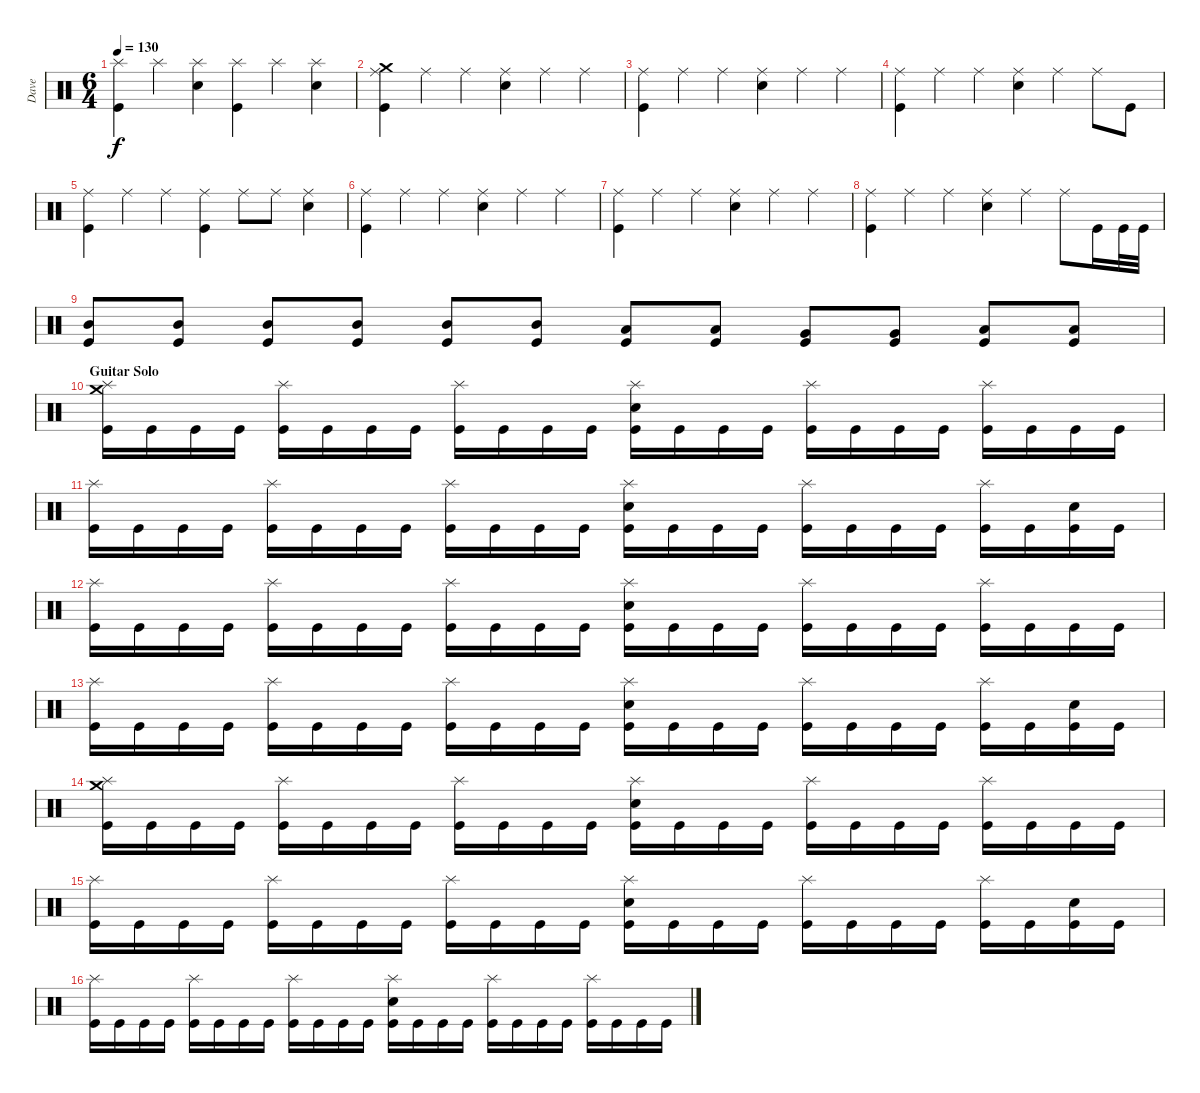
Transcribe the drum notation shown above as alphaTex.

\track ("Dave" "Dave") {instrument percussion}
\staff {score}
\articulation defaults
\ts (6 4)
\tempo 130
\clef neutral
\ks c
("Splash (hit)" "Kick (hit)").4{dy f} "Splash (hit)".4 ("Splash (hit)" "Electric Snare (hit)").4 ("Splash (hit)" "Kick (hit)").4 "Splash (hit)".4 ("Splash (hit)" "Electric Snare (hit)").4 |
("Crash medium (hit)" "Ride (middle)" "Kick (hit)").4 "Ride (middle)".4 "Ride (middle)".4 ("Ride (middle)" "Electric Snare (hit)").4 "Ride (middle)".4 "Ride (middle)".4 |
("Ride (middle)" "Kick (hit)").4 "Ride (middle)".4 "Ride (middle)".4 ("Ride (middle)" "Electric Snare (hit)").4 "Ride (middle)".4 "Ride (middle)".4 |
("Ride (middle)" "Kick (hit)").4 "Ride (middle)".4 "Ride (middle)".4 ("Ride (middle)" "Electric Snare (hit)").4 "Ride (middle)".4 "Ride (middle)".8 "Kick (hit)".8 |
("Ride (middle)" "Kick (hit)").4 "Ride (middle)".4 "Ride (middle)".4 ("Ride (middle)" "Kick (hit)").4 "Ride (middle)".8 "Ride (middle)".8 ("Ride (middle)" "Electric Snare (hit)").4 |
("Ride (middle)" "Kick (hit)").4 "Ride (middle)".4 "Ride (middle)".4 ("Ride (middle)" "Electric Snare (hit)").4 "Ride (middle)".4 "Ride (middle)".4 |
("Ride (middle)" "Kick (hit)").4 "Ride (middle)".4 "Ride (middle)".4 ("Ride (middle)" "Electric Snare (hit)").4 "Ride (middle)".4 "Ride (middle)".4 |
("Ride (middle)" "Kick (hit)").4 "Ride (middle)".4 "Ride (middle)".4 ("Ride (middle)" "Electric Snare (hit)").4 "Ride (middle)".4 "Ride (middle)".8 "Kick (hit)".16 "Kick (hit)".32 "Kick (hit)".32 |
("Mid Tom (hit)" "Kick (hit)").8 ("Mid Tom (hit)" "Kick (hit)").8 ("Mid Tom (hit)" "Kick (hit)").8 ("Mid Tom (hit)" "Kick (hit)").8 ("Mid Tom (hit)" "Kick (hit)").8 ("Mid Tom (hit)" "Kick (hit)").8 ("Low Tom (hit)" "Kick (hit)").8 ("Low Tom (hit)" "Kick (hit)").8 ("Very Low Tom (hit)" "Kick (hit)").8 ("Very Low Tom (hit)" "Kick (hit)").8 ("Low Floor Tom (hit)" "Kick (hit)").8 ("Low Floor Tom (hit)" "Kick (hit)").8 |
\section ("" "Guitar Solo")
("Crash medium (hit)" "Splash (hit)" "Kick (hit)").16 "Kick (hit)".16 "Kick (hit)".16 "Kick (hit)".16 ("Splash (hit)" "Kick (hit)").16 "Kick (hit)".16 "Kick (hit)".16 "Kick (hit)".16 ("Splash (hit)" "Kick (hit)").16 "Kick (hit)".16 "Kick (hit)".16 "Kick (hit)".16 ("Splash (hit)" "Electric Snare (hit)" "Kick (hit)").16 "Kick (hit)".16 "Kick (hit)".16 "Kick (hit)".16 ("Splash (hit)" "Kick (hit)").16 "Kick (hit)".16 "Kick (hit)".16 "Kick (hit)".16 ("Splash (hit)" "Kick (hit)").16 "Kick (hit)".16 "Kick (hit)".16 "Kick (hit)".16 |
("Splash (hit)" "Kick (hit)").16 "Kick (hit)".16 "Kick (hit)".16 "Kick (hit)".16 ("Splash (hit)" "Kick (hit)").16 "Kick (hit)".16 "Kick (hit)".16 "Kick (hit)".16 ("Splash (hit)" "Kick (hit)").16 "Kick (hit)".16 "Kick (hit)".16 "Kick (hit)".16 ("Splash (hit)" "Electric Snare (hit)" "Kick (hit)").16 "Kick (hit)".16 "Kick (hit)".16 "Kick (hit)".16 ("Splash (hit)" "Kick (hit)").16 "Kick (hit)".16 "Kick (hit)".16 "Kick (hit)".16 ("Splash (hit)" "Kick (hit)").16 "Kick (hit)".16 ("Electric Snare (hit)" "Kick (hit)").16 "Kick (hit)".16 |
("Splash (hit)" "Kick (hit)").16 "Kick (hit)".16 "Kick (hit)".16 "Kick (hit)".16 ("Splash (hit)" "Kick (hit)").16 "Kick (hit)".16 "Kick (hit)".16 "Kick (hit)".16 ("Splash (hit)" "Kick (hit)").16 "Kick (hit)".16 "Kick (hit)".16 "Kick (hit)".16 ("Splash (hit)" "Electric Snare (hit)" "Kick (hit)").16 "Kick (hit)".16 "Kick (hit)".16 "Kick (hit)".16 ("Splash (hit)" "Kick (hit)").16 "Kick (hit)".16 "Kick (hit)".16 "Kick (hit)".16 ("Splash (hit)" "Kick (hit)").16 "Kick (hit)".16 "Kick (hit)".16 "Kick (hit)".16 |
("Splash (hit)" "Kick (hit)").16 "Kick (hit)".16 "Kick (hit)".16 "Kick (hit)".16 ("Splash (hit)" "Kick (hit)").16 "Kick (hit)".16 "Kick (hit)".16 "Kick (hit)".16 ("Splash (hit)" "Kick (hit)").16 "Kick (hit)".16 "Kick (hit)".16 "Kick (hit)".16 ("Splash (hit)" "Electric Snare (hit)" "Kick (hit)").16 "Kick (hit)".16 "Kick (hit)".16 "Kick (hit)".16 ("Splash (hit)" "Kick (hit)").16 "Kick (hit)".16 "Kick (hit)".16 "Kick (hit)".16 ("Splash (hit)" "Kick (hit)").16 "Kick (hit)".16 ("Electric Snare (hit)" "Kick (hit)").16 "Kick (hit)".16 |
("Crash medium (hit)" "Splash (hit)" "Kick (hit)").16 "Kick (hit)".16 "Kick (hit)".16 "Kick (hit)".16 ("Splash (hit)" "Kick (hit)").16 "Kick (hit)".16 "Kick (hit)".16 "Kick (hit)".16 ("Splash (hit)" "Kick (hit)").16 "Kick (hit)".16 "Kick (hit)".16 "Kick (hit)".16 ("Splash (hit)" "Electric Snare (hit)" "Kick (hit)").16 "Kick (hit)".16 "Kick (hit)".16 "Kick (hit)".16 ("Splash (hit)" "Kick (hit)").16 "Kick (hit)".16 "Kick (hit)".16 "Kick (hit)".16 ("Splash (hit)" "Kick (hit)").16 "Kick (hit)".16 "Kick (hit)".16 "Kick (hit)".16 |
("Splash (hit)" "Kick (hit)").16 "Kick (hit)".16 "Kick (hit)".16 "Kick (hit)".16 ("Splash (hit)" "Kick (hit)").16 "Kick (hit)".16 "Kick (hit)".16 "Kick (hit)".16 ("Splash (hit)" "Kick (hit)").16 "Kick (hit)".16 "Kick (hit)".16 "Kick (hit)".16 ("Splash (hit)" "Electric Snare (hit)" "Kick (hit)").16 "Kick (hit)".16 "Kick (hit)".16 "Kick (hit)".16 ("Splash (hit)" "Kick (hit)").16 "Kick (hit)".16 "Kick (hit)".16 "Kick (hit)".16 ("Splash (hit)" "Kick (hit)").16 "Kick (hit)".16 ("Electric Snare (hit)" "Kick (hit)").16 "Kick (hit)".16 |
("Splash (hit)" "Kick (hit)").16 "Kick (hit)".16 "Kick (hit)".16 "Kick (hit)".16 ("Splash (hit)" "Kick (hit)").16 "Kick (hit)".16 "Kick (hit)".16 "Kick (hit)".16 ("Splash (hit)" "Kick (hit)").16 "Kick (hit)".16 "Kick (hit)".16 "Kick (hit)".16 ("Splash (hit)" "Electric Snare (hit)" "Kick (hit)").16 "Kick (hit)".16 "Kick (hit)".16 "Kick (hit)".16 ("Splash (hit)" "Kick (hit)").16 "Kick (hit)".16 "Kick (hit)".16 "Kick (hit)".16 ("Splash (hit)" "Kick (hit)").16 "Kick (hit)".16 "Kick (hit)".16 "Kick (hit)".16
